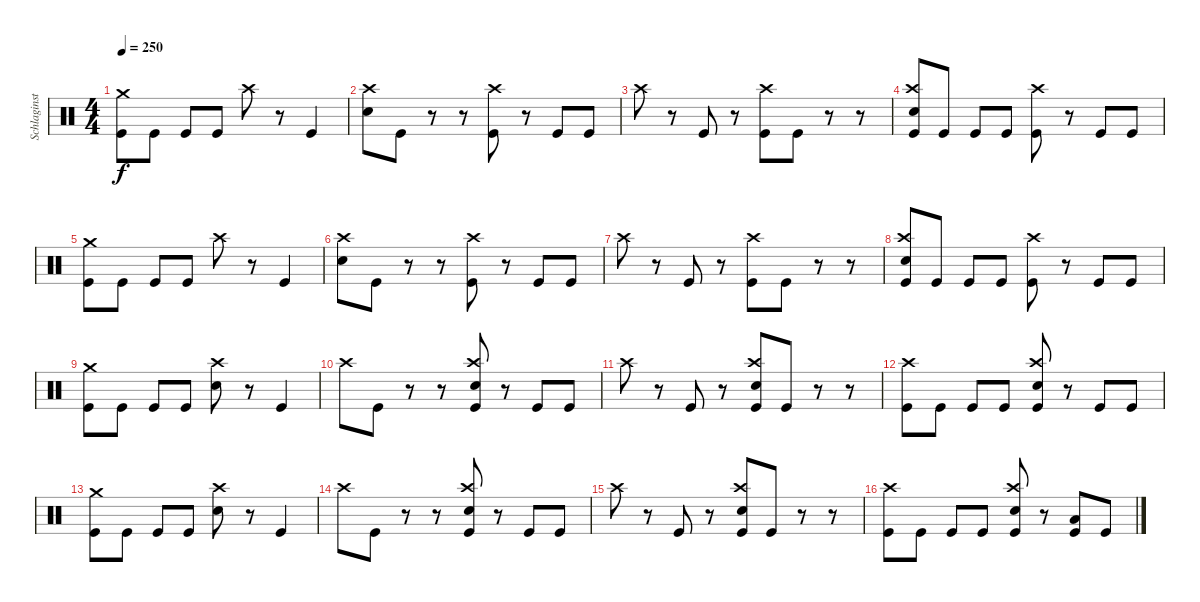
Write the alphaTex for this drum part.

\track ("Schlaginstrumente - Auswahl" "Schlaginst") {instrument percussion}
\staff {score}
\articulation defaults
\ts (4 4)
\tempo 250
\clef neutral
\ks c
("Crash medium (hit)" "Kick (hit)").8{dy f} "Kick (hit)".8 "Kick (hit)".8 "Kick (hit)".8 "Crash high (hit)".8 r.8 "Kick (hit)".4 |
("Crash high (hit)" "Electric Snare (hit)").8 "Kick (hit)".8 r.8 r.8 ("Crash high (hit)" "Kick (hit)").8 r.8 "Kick (hit)".8 "Kick (hit)".8 |
"Crash high (hit)".8 r.8 "Kick (hit)".8 r.8 ("Crash high (hit)" "Kick (hit)").8 "Kick (hit)".8 r.8 r.8 |
("Crash high (hit)" "Electric Snare (hit)" "Kick (hit)").8 "Kick (hit)".8 "Kick (hit)".8 "Kick (hit)".8 ("Crash high (hit)" "Kick (hit)").8 r.8 "Kick (hit)".8 "Kick (hit)".8 |
("Crash medium (hit)" "Kick (hit)").8 "Kick (hit)".8 "Kick (hit)".8 "Kick (hit)".8 "Crash high (hit)".8 r.8 "Kick (hit)".4 |
("Crash high (hit)" "Electric Snare (hit)").8 "Kick (hit)".8 r.8 r.8 ("Crash high (hit)" "Kick (hit)").8 r.8 "Kick (hit)".8 "Kick (hit)".8 |
"Crash high (hit)".8 r.8 "Kick (hit)".8 r.8 ("Crash high (hit)" "Kick (hit)").8 "Kick (hit)".8 r.8 r.8 |
("Crash high (hit)" "Electric Snare (hit)" "Kick (hit)").8 "Kick (hit)".8 "Kick (hit)".8 "Kick (hit)".8 ("Crash high (hit)" "Kick (hit)").8 r.8 "Kick (hit)".8 "Kick (hit)".8 |
("Crash medium (hit)" "Kick (hit)").8 "Kick (hit)".8 "Kick (hit)".8 "Kick (hit)".8 ("Crash high (hit)" "Electric Snare (hit)").8 r.8 "Kick (hit)".4 |
"Crash high (hit)".8 "Kick (hit)".8 r.8 r.8 ("Crash high (hit)" "Electric Snare (hit)" "Kick (hit)").8 r.8 "Kick (hit)".8 "Kick (hit)".8 |
"Crash high (hit)".8 r.8 "Kick (hit)".8 r.8 ("Crash high (hit)" "Electric Snare (hit)" "Kick (hit)").8 "Kick (hit)".8 r.8 r.8 |
("Crash high (hit)" "Kick (hit)").8 "Kick (hit)".8 "Kick (hit)".8 "Kick (hit)".8 ("Crash high (hit)" "Electric Snare (hit)" "Kick (hit)").8 r.8 "Kick (hit)".8 "Kick (hit)".8 |
("Crash medium (hit)" "Kick (hit)").8 "Kick (hit)".8 "Kick (hit)".8 "Kick (hit)".8 ("Crash high (hit)" "Electric Snare (hit)").8 r.8 "Kick (hit)".4 |
"Crash high (hit)".8 "Kick (hit)".8 r.8 r.8 ("Crash high (hit)" "Electric Snare (hit)" "Kick (hit)").8 r.8 "Kick (hit)".8 "Kick (hit)".8 |
"Crash high (hit)".8 r.8 "Kick (hit)".8 r.8 ("Crash high (hit)" "Electric Snare (hit)" "Kick (hit)").8 "Kick (hit)".8 r.8 r.8 |
("Crash high (hit)" "Kick (hit)").8 "Kick (hit)".8 "Kick (hit)".8 "Kick (hit)".8 ("Crash high (hit)" "Electric Snare (hit)" "Kick (hit)").8 r.8 ("Low Tom (hit)" "Kick (hit)").8 "Kick (hit)".8
